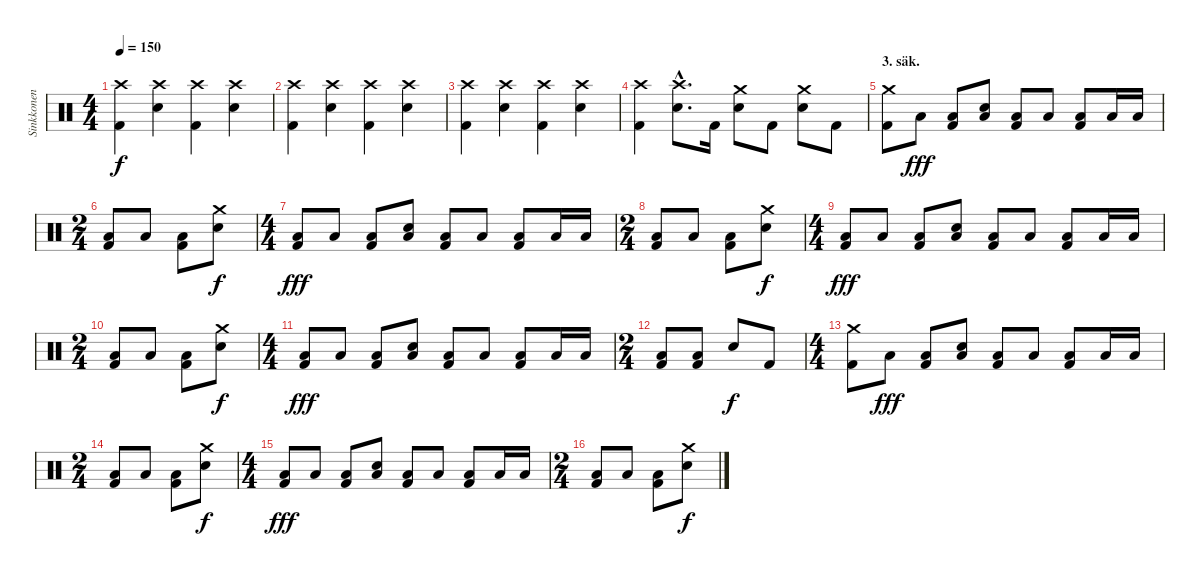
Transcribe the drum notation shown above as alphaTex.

\track ("Sinkkonen" "Sinkkonen") {instrument percussion}
\staff {score}
\articulation defaults
\ts (4 4)
\tempo 150
\clef neutral
\ks c
("Kick (hit) 2" "Crash high (hit)").4{dy f} ("Crash high (hit)" "Snare (hit) 2").4 ("Kick (hit) 2" "Crash high (hit)").4 ("Crash high (hit)" "Snare (hit) 2").4 |
("Kick (hit) 2" "Crash high (hit)").4 ("Crash high (hit)" "Snare (hit) 2").4 ("Kick (hit) 2" "Crash high (hit)").4 ("Crash high (hit)" "Snare (hit) 2").4 |
("Kick (hit) 2" "Crash high (hit)").4 ("Crash high (hit)" "Snare (hit) 2").4 ("Kick (hit) 2" "Crash high (hit)").4 ("Crash high (hit)" "Snare (hit) 2").4 |
("Kick (hit) 2" "Crash high (hit)").4 ("Crash high (hit)"{hac} "Snare (hit) 2"{hac}).8{d} "Kick (hit) 2".16 ("Crash medium (hit)" "Snare (hit) 2").8 "Kick (hit) 2".8 ("Crash medium (hit)" "Snare (hit) 2").8 "Kick (hit) 2".8 |
\section ("" "3. säk.")
("Kick (hit) 2" "Crash medium (hit)").8 "Low Floor Tom (hit)".8{dy fff} ("Kick (hit) 2" "Low Floor Tom (hit)").8 ("Low Floor Tom (hit)" "Snare (hit) 2").8 ("Kick (hit) 2" "Low Floor Tom (hit)").8 "Low Floor Tom (hit)".8 ("Kick (hit) 2" "Low Floor Tom (hit)").8 "Low Floor Tom (hit)".16 "Low Floor Tom (hit)".16 |
\ts (2 4)
("Kick (hit) 2" "Low Floor Tom (hit)").8 "Low Floor Tom (hit)".8 ("Kick (hit) 2" "Low Floor Tom (hit)").8 ("Crash medium (hit)" "Snare (hit) 2").8{dy f} |
\ts (4 4)
("Kick (hit) 2" "Low Floor Tom (hit)").8{dy fff} "Low Floor Tom (hit)".8 ("Kick (hit) 2" "Low Floor Tom (hit)").8 ("Low Floor Tom (hit)" "Snare (hit) 2").8 ("Kick (hit) 2" "Low Floor Tom (hit)").8 "Low Floor Tom (hit)".8 ("Kick (hit) 2" "Low Floor Tom (hit)").8 "Low Floor Tom (hit)".16 "Low Floor Tom (hit)".16 |
\ts (2 4)
("Kick (hit) 2" "Low Floor Tom (hit)").8 "Low Floor Tom (hit)".8 ("Kick (hit) 2" "Low Floor Tom (hit)").8 ("Crash medium (hit)" "Snare (hit) 2").8{dy f} |
\ts (4 4)
("Kick (hit) 2" "Low Floor Tom (hit)").8{dy fff} "Low Floor Tom (hit)".8 ("Kick (hit) 2" "Low Floor Tom (hit)").8 ("Low Floor Tom (hit)" "Snare (hit) 2").8 ("Kick (hit) 2" "Low Floor Tom (hit)").8 "Low Floor Tom (hit)".8 ("Kick (hit) 2" "Low Floor Tom (hit)").8 "Low Floor Tom (hit)".16 "Low Floor Tom (hit)".16 |
\ts (2 4)
("Kick (hit) 2" "Low Floor Tom (hit)").8 "Low Floor Tom (hit)".8 ("Kick (hit) 2" "Low Floor Tom (hit)").8 ("Crash medium (hit)" "Snare (hit) 2").8{dy f} |
\ts (4 4)
("Kick (hit) 2" "Low Floor Tom (hit)").8{dy fff} "Low Floor Tom (hit)".8 ("Kick (hit) 2" "Low Floor Tom (hit)").8 ("Low Floor Tom (hit)" "Snare (hit) 2").8 ("Kick (hit) 2" "Low Floor Tom (hit)").8 "Low Floor Tom (hit)".8 ("Kick (hit) 2" "Low Floor Tom (hit)").8 "Low Floor Tom (hit)".16 "Low Floor Tom (hit)".16 |
\ts (2 4)
("Kick (hit) 2" "Low Floor Tom (hit)").8 ("Kick (hit) 2" "Low Floor Tom (hit)").8 "Snare (hit) 2".8{dy f} "Kick (hit) 2".8 |
\ts (4 4)
("Kick (hit) 2" "Crash medium (hit)").8 "Low Floor Tom (hit)".8{dy fff} ("Kick (hit) 2" "Low Floor Tom (hit)").8 ("Low Floor Tom (hit)" "Snare (hit) 2").8 ("Kick (hit) 2" "Low Floor Tom (hit)").8 "Low Floor Tom (hit)".8 ("Kick (hit) 2" "Low Floor Tom (hit)").8 "Low Floor Tom (hit)".16 "Low Floor Tom (hit)".16 |
\ts (2 4)
("Kick (hit) 2" "Low Floor Tom (hit)").8 "Low Floor Tom (hit)".8 ("Kick (hit) 2" "Low Floor Tom (hit)").8 ("Crash medium (hit)" "Snare (hit) 2").8{dy f} |
\ts (4 4)
("Kick (hit) 2" "Low Floor Tom (hit)").8{dy fff} "Low Floor Tom (hit)".8 ("Kick (hit) 2" "Low Floor Tom (hit)").8 ("Low Floor Tom (hit)" "Snare (hit) 2").8 ("Kick (hit) 2" "Low Floor Tom (hit)").8 "Low Floor Tom (hit)".8 ("Kick (hit) 2" "Low Floor Tom (hit)").8 "Low Floor Tom (hit)".16 "Low Floor Tom (hit)".16 |
\ts (2 4)
("Kick (hit) 2" "Low Floor Tom (hit)").8 "Low Floor Tom (hit)".8 ("Kick (hit) 2" "Low Floor Tom (hit)").8 ("Crash medium (hit)" "Snare (hit) 2").8{dy f}
